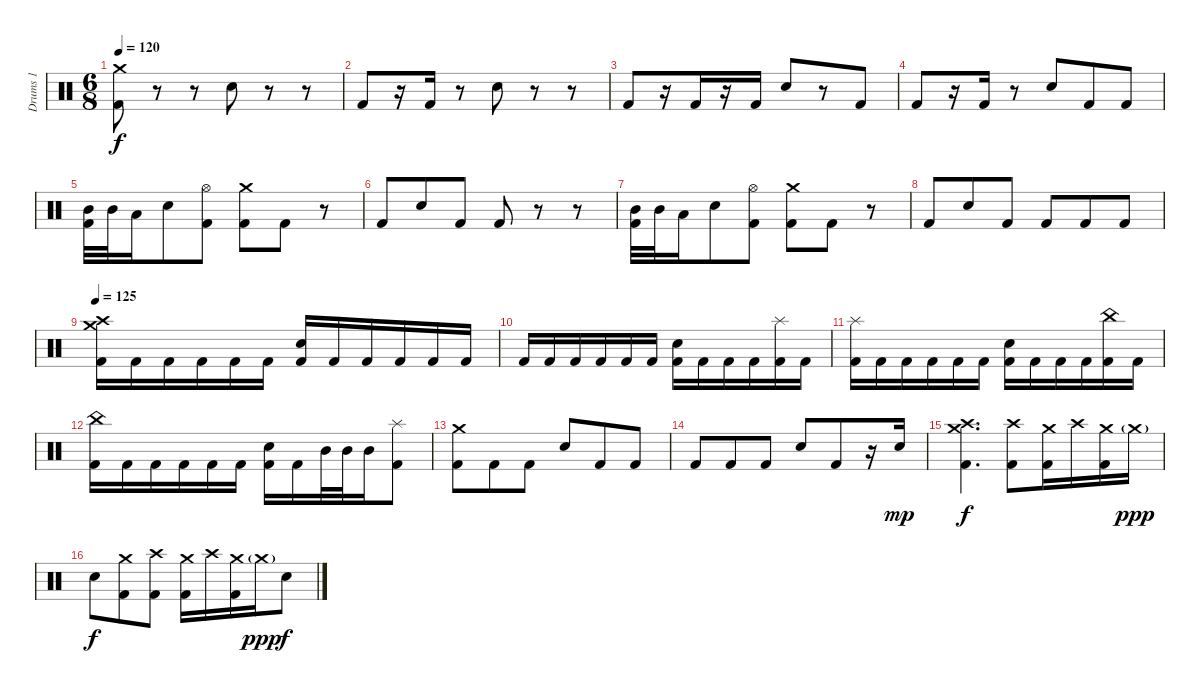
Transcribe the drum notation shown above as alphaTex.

\track ("Drums 1" "Drums 1") {instrument percussion}
\staff {score}
\articulation defaults
\ts (6 8)
\tempo 120
\clef neutral
\ks c
("Crash medium (hit)" "Kick (hit) 2").8{dy f} r.8 r.8 "Snare (hit) 2".8 r.8 r.8 |
"Kick (hit) 2".8 r.16 "Kick (hit) 2".16 r.8 "Snare (hit) 2".8 r.8 r.8 |
"Kick (hit) 2".8 r.16 "Kick (hit) 2".16 r.16 "Kick (hit) 2".16 "Snare (hit) 2".8 r.8 "Kick (hit) 2".8 |
"Kick (hit) 2".8 r.16 "Kick (hit) 2".16 r.8 "Snare (hit) 2".8 "Kick (hit) 2".8 "Kick (hit) 2".8 |
("Mid Tom (hit)" "Kick (hit) 2").32 "Mid Tom (hit)".32 "Low Tom (hit)".16 "Snare (hit) 2".8 ("Hi-Hat (open)" "Kick (hit) 2").8 ("Crash medium (hit)" "Kick (hit) 2").8 "Kick (hit) 2".8 r.8 |
"Kick (hit) 2".8 "Snare (hit) 2".8 "Kick (hit) 2".8 "Kick (hit) 2".8 r.8 r.8 |
("Mid Tom (hit)" "Kick (hit) 2").32 "Mid Tom (hit)".32 "Low Tom (hit)".16 "Snare (hit) 2".8 ("Hi-Hat (open)" "Kick (hit) 2").8 ("Crash medium (hit)" "Kick (hit) 2").8 "Kick (hit) 2".8 r.8 |
"Kick (hit) 2".8 "Snare (hit) 2".8 "Kick (hit) 2".8 "Kick (hit) 2".8 "Kick (hit) 2".8 "Kick (hit) 2".8 |
\tempo 125
("Crash high (hit)" "Crash medium (hit)" "Kick (hit) 2").16 "Kick (hit) 2".16 "Kick (hit) 2".16 "Kick (hit) 2".16 "Kick (hit) 2".16 "Kick (hit) 2".16 ("Snare (hit) 2" "Kick (hit) 2").16 "Kick (hit) 2".16 "Kick (hit) 2".16 "Kick (hit) 2".16 "Kick (hit) 2".16 "Kick (hit) 2".16 |
"Kick (hit) 2".16 "Kick (hit) 2".16 "Kick (hit) 2".16 "Kick (hit) 2".16 "Kick (hit) 2".16 "Kick (hit) 2".16 ("Snare (hit) 2" "Kick (hit) 2").16 "Kick (hit) 2".16 "Kick (hit) 2".16 "Kick (hit) 2".16 ("Splash (hit)" "Kick (hit) 2").16 "Kick (hit) 2".16 |
("Splash (hit)" "Kick (hit) 2").16 "Kick (hit) 2".16 "Kick (hit) 2".16 "Kick (hit) 2".16 "Kick (hit) 2".16 "Kick (hit) 2".16 ("Snare (hit) 2" "Kick (hit) 2").16 "Kick (hit) 2".16 "Kick (hit) 2".16 "Kick (hit) 2".16 ("China (hit)" "Kick (hit) 2").16 "Kick (hit) 2".16 |
("China (hit)" "Kick (hit) 2").16 "Kick (hit) 2".16 "Kick (hit) 2".16 "Kick (hit) 2".16 "Kick (hit) 2".16 "Kick (hit) 2".16 ("Snare (hit) 2" "Kick (hit) 2").16 "Kick (hit) 2".16 "Mid Tom (hit)".32 "Mid Tom (hit)".32 "Mid Tom (hit)".16 ("Splash (hit)" "Kick (hit) 2").8 |
("Crash medium (hit)" "Kick (hit) 2").8 "Kick (hit) 2".8 "Kick (hit) 2".8 "Snare (hit) 2".8 "Kick (hit) 2".8 "Kick (hit) 2".8 |
"Kick (hit) 2".8 "Kick (hit) 2".8 "Kick (hit) 2".8 "Snare (hit) 2".8 "Kick (hit) 2".8 r.16 "Snare (hit) 2".16{dy mp} |
("Crash medium (hit)" "Crash high (hit)" "Kick (hit) 2").4{d dy f} ("Crash high (hit)" "Kick (hit) 2").8 ("Crash medium (hit)" "Kick (hit) 2").16 "Crash high (hit)".16 ("Crash medium (hit)" "Kick (hit) 2").16 "Crash medium (hit)"{g}.16{dy ppp} |
"Snare (hit) 2".8{dy f} ("Crash medium (hit)" "Kick (hit) 2").8 ("Crash high (hit)" "Kick (hit) 2").8 ("Crash medium (hit)" "Kick (hit) 2").16 "Crash high (hit)".16 ("Crash medium (hit)" "Kick (hit) 2").16 "Crash medium (hit)"{g}.16{dy ppp} "Snare (hit) 2".8{dy f}
